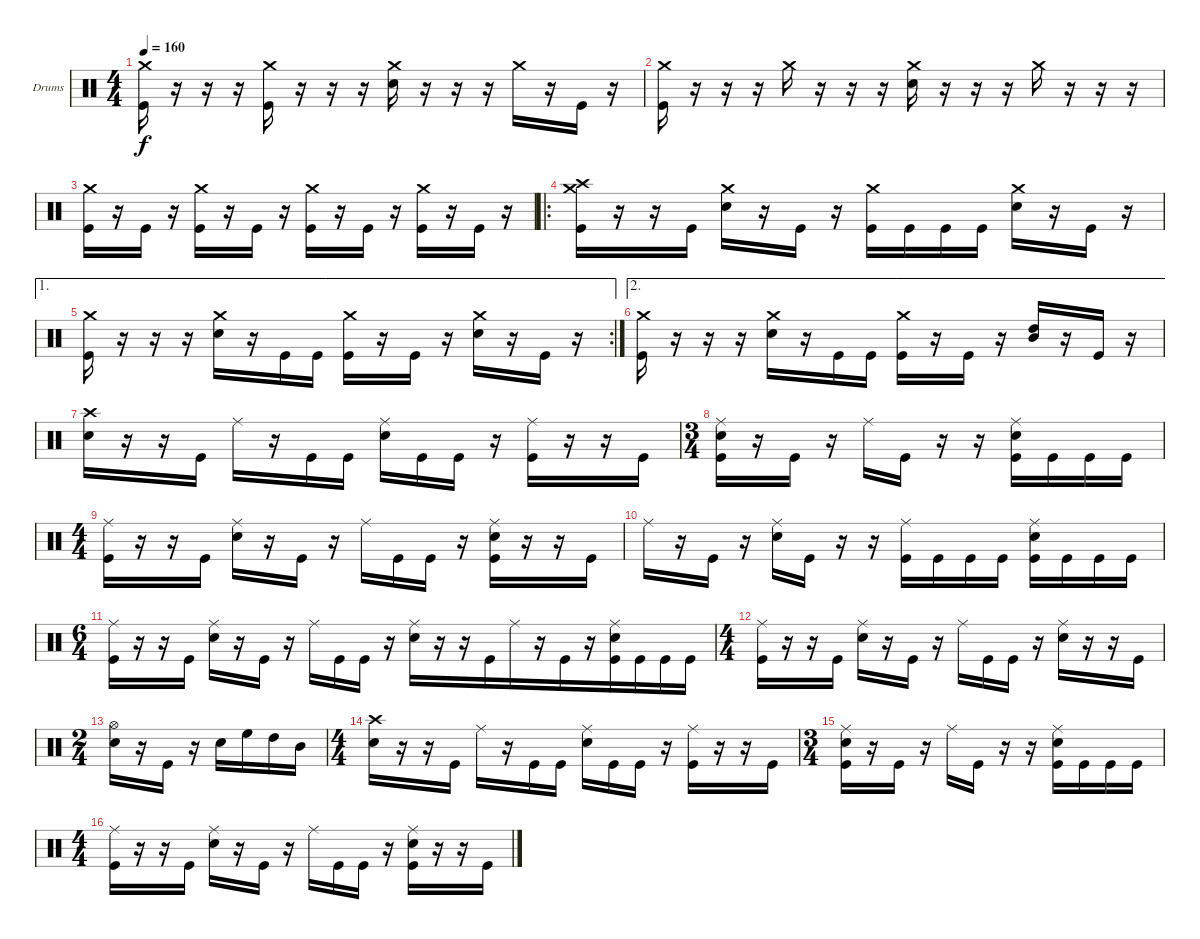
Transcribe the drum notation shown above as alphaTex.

\bracketExtendMode groupsimilarinstruments
\firstSystemTrackNameOrientation horizontal
\otherSystemsTrackNameOrientation horizontal
\track ("Drumkit" "Drums") {solo instrument percussion}
\staff {score}
\articulation defaults
\ts (4 4)
\tempo 160
\clef neutral
\ks c
("Crash medium (hit)" "Kick (hit)").16{dy f} r.16 r.16 r.16 ("Crash medium (hit)" "Kick (hit)").16 r.16 r.16 r.16 ("Crash medium (hit)" "Snare (hit) 2").16 r.16 r.16 r.16 "Crash medium (hit)".16 r.16 "Kick (hit)".16 r.16 |
("Crash medium (hit)" "Kick (hit)").16 r.16 r.16 r.16 "Crash medium (hit)".16 r.16 r.16 r.16 ("Crash medium (hit)" "Snare (hit) 2").16 r.16 r.16 r.16 "Crash medium (hit)".16 r.16 r.16 r.16 |
("Crash medium (hit)" "Kick (hit)").16 r.16 "Kick (hit)".16 r.16 ("Crash medium (hit)" "Kick (hit)").16 r.16 "Kick (hit)".16 r.16 ("Crash medium (hit)" "Kick (hit)").16 r.16 "Kick (hit)".16 r.16 ("Crash medium (hit)" "Kick (hit)").16 r.16 "Kick (hit)".16 r.16 |
\ro
("Crash medium (hit)" "Crash high (hit)" "Kick (hit)").16 r.16 r.16 "Kick (hit)".16 ("Crash medium (hit)" "Snare (hit) 2").16 r.16 "Kick (hit)".16 r.16 ("Crash medium (hit)" "Kick (hit)").16 "Kick (hit)".16 "Kick (hit)".16 "Kick (hit)".16 ("Crash medium (hit)" "Snare (hit) 2").16 r.16 "Kick (hit)".16 r.16 |
\ae 1
\rc 2
("Crash medium (hit)" "Kick (hit)").16 r.16 r.16 r.16 ("Crash medium (hit)" "Snare (hit) 2").16 r.16 "Kick (hit)".16 "Kick (hit)".16 ("Crash medium (hit)" "Kick (hit)").16 r.16 "Kick (hit)".16 r.16 ("Crash medium (hit)" "Snare (hit) 2").16 r.16 "Kick (hit)".16 r.16 |
\ae 2
("Crash medium (hit)" "Kick (hit)").16 r.16 r.16 r.16 ("Crash medium (hit)" "Snare (hit) 2").16 r.16 "Kick (hit)".16 "Kick (hit)".16 ("Crash medium (hit)" "Kick (hit)").16 r.16 "Kick (hit)".16 r.16 ("High Tom (hit)" "Mid Tom (hit)").16 r.16 "Kick (hit)".16 r.16 |
("Crash high (hit)" "Snare (hit) 2").16 r.16 r.16 "Kick (hit)".16 "Ride (middle)".16 r.16 "Kick (hit)".16 "Kick (hit)".16 ("Ride (middle)" "Snare (hit) 2").16 "Kick (hit)".16 "Kick (hit)".16 r.16 ("Ride (middle)" "Kick (hit)").16 r.16 r.16 "Kick (hit)".16 |
\ts (3 4)
\beaming (8 2 2 2 2)
("Ride (middle)" "Snare (hit) 2" "Kick (hit)").16 r.16 "Kick (hit)".16 r.16 "Ride (middle)".16 "Kick (hit)".16 r.16 r.16 ("Ride (middle)" "Snare (hit) 2" "Kick (hit)").16 "Kick (hit)".16 "Kick (hit)".16 "Kick (hit)".16 |
\ts (4 4)
\beaming (8 2 2 2 2)
("Ride (middle)" "Kick (hit)").16 r.16 r.16 "Kick (hit)".16 ("Ride (middle)" "Snare (hit) 2").16 r.16 "Kick (hit)".16 r.16 "Ride (middle)".16 "Kick (hit)".16 "Kick (hit)".16 r.16 ("Ride (middle)" "Snare (hit) 2" "Kick (hit)").16 r.16 r.16 "Kick (hit)".16 |
"Ride (middle)".16 r.16 "Kick (hit)".16 r.16 ("Ride (middle)" "Snare (hit) 2").16 "Kick (hit)".16 r.16 r.16 ("Ride (middle)" "Kick (hit)").16 "Kick (hit)".16 "Kick (hit)".16 "Kick (hit)".16 ("Ride (middle)" "Snare (hit) 2" "Kick (hit)").16 "Kick (hit)".16 "Kick (hit)".16 "Kick (hit)".16 |
\ts (6 4)
\beaming (8 2 2 2 6)
("Ride (middle)" "Kick (hit)").16 r.16 r.16 "Kick (hit)".16 ("Ride (middle)" "Snare (hit) 2").16 r.16 "Kick (hit)".16 r.16 "Ride (middle)".16 "Kick (hit)".16 "Kick (hit)".16 r.16 ("Ride (middle)" "Snare (hit) 2").16 r.16 r.16 "Kick (hit)".16 "Ride (middle)".16 r.16 "Kick (hit)".16 r.16 ("Ride (middle)" "Snare (hit) 2" "Kick (hit)").16 "Kick (hit)".16 "Kick (hit)".16 "Kick (hit)".16 |
\ts (4 4)
\beaming (8 2 2 2 2)
("Ride (middle)" "Kick (hit)").16 r.16 r.16 "Kick (hit)".16 ("Ride (middle)" "Snare (hit) 2").16 r.16 "Kick (hit)".16 r.16 "Ride (middle)".16 "Kick (hit)".16 "Kick (hit)".16 r.16 ("Ride (middle)" "Snare (hit) 2").16 r.16 r.16 "Kick (hit)".16 |
\ts (2 4)
\beaming (8 2 2 2 2)
("Hi-Hat (open)" "Snare (hit) 2").16 r.16 "Kick (hit)".16 r.16 "Snare (hit) 2".16 "High Floor Tom (hit)".16 "High Tom (hit)".16 "Mid Tom (hit)".16 |
\ts (4 4)
\beaming (8 2 2 2 2)
("Crash high (hit)" "Snare (hit) 2").16 r.16 r.16 "Kick (hit)".16 "Ride (middle)".16 r.16 "Kick (hit)".16 "Kick (hit)".16 ("Ride (middle)" "Snare (hit) 2").16 "Kick (hit)".16 "Kick (hit)".16 r.16 ("Ride (middle)" "Kick (hit)").16 r.16 r.16 "Kick (hit)".16 |
\ts (3 4)
\beaming (8 2 2 2 2)
("Ride (middle)" "Snare (hit) 2" "Kick (hit)").16 r.16 "Kick (hit)".16 r.16 "Ride (middle)".16 "Kick (hit)".16 r.16 r.16 ("Ride (middle)" "Snare (hit) 2" "Kick (hit)").16 "Kick (hit)".16 "Kick (hit)".16 "Kick (hit)".16 |
\ts (4 4)
\beaming (8 2 2 2 2)
("Ride (middle)" "Kick (hit)").16 r.16 r.16 "Kick (hit)".16 ("Ride (middle)" "Snare (hit) 2").16 r.16 "Kick (hit)".16 r.16 "Ride (middle)".16 "Kick (hit)".16 "Kick (hit)".16 r.16 ("Ride (middle)" "Snare (hit) 2" "Kick (hit)").16 r.16 r.16 "Kick (hit)".16
